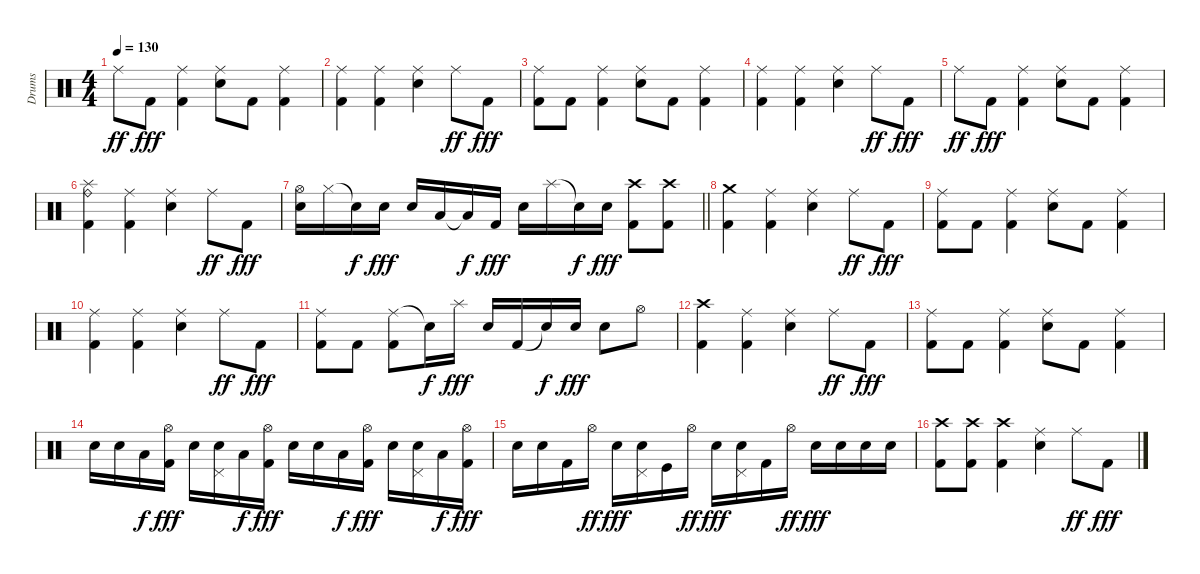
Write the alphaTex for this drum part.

\track ("Drums" "Drums") {instrument percussion}
\staff {score}
\articulation defaults
\ts (4 4)
\tempo 130
\clef neutral
\ks c "Ride (middle)".8{dy ff} "Kick (hit) 2".8{dy fff}
("Ride (middle)" "Kick (hit) 2").4 ("Ride (middle)" "Snare (hit) 2").8 "Kick (hit) 2".8 ("Ride (middle)" "Kick (hit) 2").4 |
("Ride (middle)" "Kick (hit) 2").4 ("Ride (middle)" "Kick (hit) 2").4 ("Ride (middle)" "Snare (hit) 2").4 "Ride (middle)".8{dy ff} "Kick (hit) 2".8{dy fff} |
("Ride (middle)" "Kick (hit) 2").8 "Kick (hit) 2".8 ("Ride (middle)" "Kick (hit) 2").4 ("Ride (middle)" "Snare (hit) 2").8 "Kick (hit) 2".8 ("Ride (middle)" "Kick (hit) 2").4 |
("Ride (middle)" "Kick (hit) 2").4 ("Ride (middle)" "Kick (hit) 2").4 ("Ride (middle)" "Snare (hit) 2").4 "Ride (middle)".8{dy ff} "Kick (hit) 2".8{dy fff} |
"Ride (middle)".8{dy ff} "Kick (hit) 2".8{dy fff} ("Ride (middle)" "Kick (hit) 2").4 ("Ride (middle)" "Snare (hit) 2").8 "Kick (hit) 2".8 ("Ride (middle)" "Kick (hit) 2").4 |
("Ride (bell)" "Splash (hit)" "Kick (hit) 2").4 ("Ride (middle)" "Kick (hit) 2").4 ("Ride (middle)" "Snare (hit) 2").4 "Ride (middle)".8{dy ff} "Kick (hit) 2".8{dy fff} |
\barLineRight lightlight
("Hi-Hat (open)" "Snare (hit) 2").16 "Hi-Hat (closed)".16 "Snare (hit)"{t}.16{dy f} "Snare (hit) 2".16{dy fff} "Snare (hit) 2".16 "Low Tom (hit)".16 "Low Tom (hit)"{t}.16{dy f} "Kick (hit) 2".16{dy fff} "Snare (hit) 2".16 "Splash (hit)".16 "Snare (hit)"{t}.16{dy f} "Snare (hit) 2".16{dy fff} ("Crash high (hit)" "Kick (hit) 2").8 ("Crash high (hit)" "Kick (hit) 2").8 |
\section ("" "")
("Crash medium (hit)" "Kick (hit) 2").4 ("Ride (middle)" "Kick (hit) 2").4 ("Ride (middle)" "Snare (hit) 2").4 "Ride (middle)".8{dy ff} "Kick (hit) 2".8{dy fff} |
("Ride (middle)" "Kick (hit) 2").8 "Kick (hit) 2".8 ("Ride (middle)" "Kick (hit) 2").4 ("Ride (middle)" "Snare (hit) 2").8 "Kick (hit) 2".8 ("Ride (middle)" "Kick (hit) 2").4 |
("Ride (middle)" "Kick (hit) 2").4 ("Ride (middle)" "Kick (hit) 2").4 ("Ride (middle)" "Snare (hit) 2").4 "Ride (middle)".8{dy ff} "Kick (hit) 2".8{dy fff} |
("Ride (middle)" "Kick (hit) 2").8 "Kick (hit) 2".8 ("Ride (middle)" "Kick (hit) 2").8 "Snare (hit)"{t}.16{dy f} "Splash (hit)".16{dy fff} "Snare (hit) 2".16 "Kick (hit) 2".16 "Snare (hit)"{t}.16{dy f} "Snare (hit) 2".16{dy fff} "Snare (hit) 2".8 "Hi-Hat (open)".8 |
("Crash high (hit)" "Kick (hit) 2").4 ("Ride (middle)" "Kick (hit) 2").4 ("Ride (middle)" "Snare (hit) 2").4 "Ride (middle)".8{dy ff} "Kick (hit) 2".8{dy fff} |
("Ride (middle)" "Kick (hit) 2").8 "Kick (hit) 2".8 ("Ride (middle)" "Kick (hit) 2").4 ("Ride (middle)" "Snare (hit) 2").8 "Kick (hit) 2".8 ("Ride (middle)" "Kick (hit) 2").4 |
"Snare (hit) 2".16 "Snare (hit) 2".16 "Low Tom (hit)".16{dy f} ("Hi-Hat (open)" "Kick (hit) 2").16{dy fff} "Snare (hit) 2".16 ("Pedal Hi-Hat (hit)" "Snare (hit) 2").16 "Low Tom (hit)".16{dy f} ("Hi-Hat (open)" "Kick (hit) 2").16{dy fff} "Snare (hit) 2".16 "Snare (hit) 2".16 "Low Tom (hit)".16{dy f} ("Hi-Hat (open)" "Kick (hit) 2").16{dy fff} "Snare (hit) 2".16 ("Pedal Hi-Hat (hit)" "Snare (hit) 2").16 "Low Tom (hit)".16{dy f} ("Hi-Hat (open)" "Kick (hit) 2").16{dy fff} |
"Snare (hit) 2".16 "Snare (hit) 2".16 "Kick (hit) 2".16 "Hi-Hat (open)".16{dy ff} "Snare (hit) 2".16{dy fff} ("Pedal Hi-Hat (hit)" "Snare (hit) 2").16 "Kick (hit)".16 "Hi-Hat (open)".16{dy ff} "Snare (hit) 2".16{dy fff} ("Pedal Hi-Hat (hit)" "Snare (hit) 2").16 "Kick (hit) 2".16 "Hi-Hat (open)".16{dy ff} "Snare (hit) 2".16{dy fff} "Snare (hit) 2".16 "Snare (hit) 2".16 "Snare (hit) 2".16 |
("Crash high (hit)" "Kick (hit) 2").8 ("Crash high (hit)" "Kick (hit) 2").8 ("Crash high (hit)" "Kick (hit) 2").4 ("Ride (middle)" "Snare (hit) 2").4 "Ride (middle)".8{dy ff} "Kick (hit) 2".8{dy fff}
